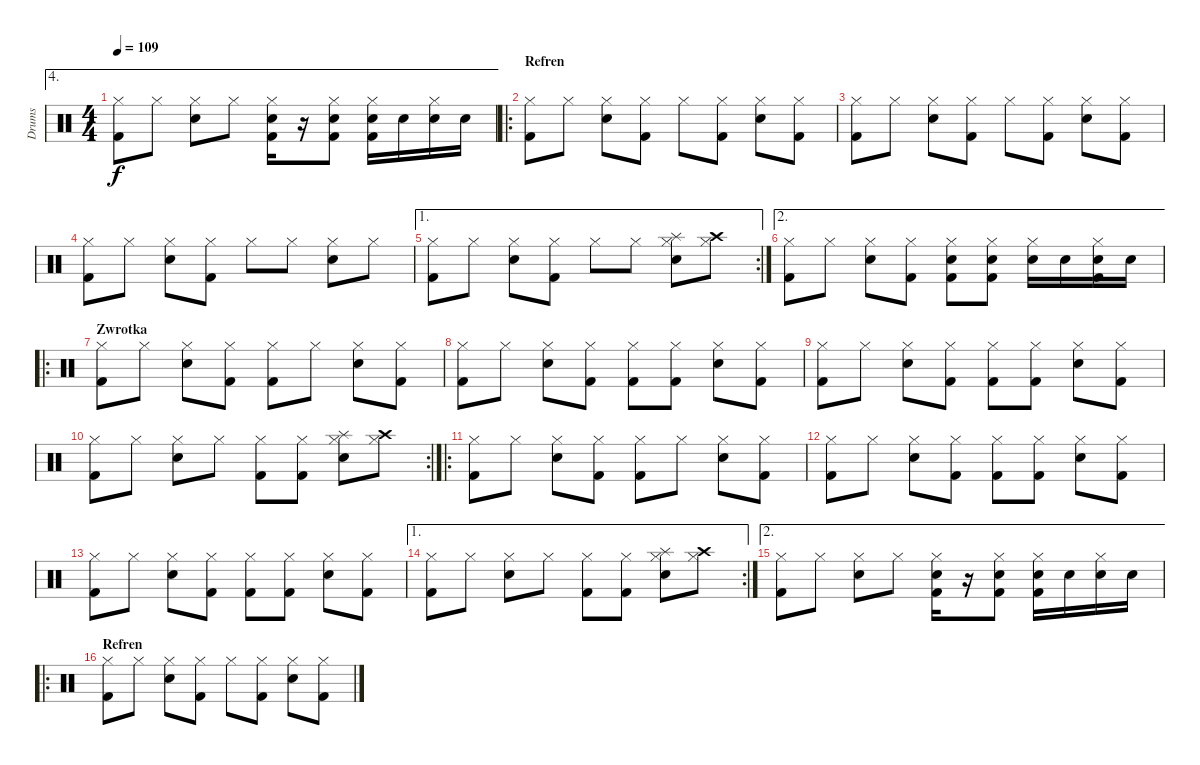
\track ("Drums" "Drums") {instrument percussion}
\staff {score}
\articulation defaults
\ae 4
\ts (4 4)
\tempo 109
\clef neutral
\ks c
("Hi-Hat (closed)" "Kick (hit) 2").8{dy f} "Hi-Hat (closed)".8 ("Hi-Hat (closed)" "Snare (hit) 2").8 "Hi-Hat (closed)".8 ("Hi-Hat (closed)" "Snare (hit) 2" "Kick (hit) 2").16 r.16 ("Hi-Hat (closed)" "Snare (hit) 2" "Kick (hit) 2").8 ("Hi-Hat (closed)" "Snare (hit) 2" "Kick (hit) 2").16 "Snare (hit) 2".16 ("Hi-Hat (closed)" "Snare (hit) 2").16 "Snare (hit) 2".16 |
\ro
\section ("" "Refren")
("Hi-Hat (closed)" "Kick (hit) 2").8 "Hi-Hat (closed)".8 ("Hi-Hat (closed)" "Snare (hit) 2").8 ("Hi-Hat (closed)" "Kick (hit) 2").8 "Hi-Hat (closed)".8 ("Hi-Hat (closed)" "Kick (hit) 2").8 ("Hi-Hat (closed)" "Snare (hit) 2").8 ("Hi-Hat (closed)" "Kick (hit) 2").8 |
("Hi-Hat (closed)" "Kick (hit) 2").8 "Hi-Hat (closed)".8 ("Hi-Hat (closed)" "Snare (hit) 2").8 ("Hi-Hat (closed)" "Kick (hit) 2").8 "Hi-Hat (closed)".8 ("Hi-Hat (closed)" "Kick (hit) 2").8 ("Hi-Hat (closed)" "Snare (hit) 2").8 ("Hi-Hat (closed)" "Kick (hit) 2").8 |
("Hi-Hat (closed)" "Kick (hit) 2").8 "Hi-Hat (closed)".8 ("Hi-Hat (closed)" "Snare (hit) 2").8 ("Hi-Hat (closed)" "Kick (hit) 2").8 "Hi-Hat (closed)".8 "Hi-Hat (closed)".8 ("Hi-Hat (closed)" "Snare (hit) 2").8 "Hi-Hat (closed)".8 |
\ae 1
\rc 2
("Hi-Hat (closed)" "Kick (hit) 2").8 "Hi-Hat (closed)".8 ("Hi-Hat (closed)" "Snare (hit) 2").8 ("Hi-Hat (closed)" "Kick (hit) 2").8 "Hi-Hat (closed)".8 "Hi-Hat (closed)".8 ("Splash (hit)" "Hi-Hat (closed)" "Snare (hit) 2").8 ("Crash high (hit)" "Hi-Hat (closed)").8 |
\ae 2
("Hi-Hat (closed)" "Kick (hit) 2").8 "Hi-Hat (closed)".8 ("Hi-Hat (closed)" "Snare (hit) 2").8 ("Hi-Hat (closed)" "Kick (hit) 2").8 ("Hi-Hat (closed)" "Snare (hit) 2" "Kick (hit) 2").8 ("Hi-Hat (closed)" "Snare (hit) 2" "Kick (hit) 2").8 ("Hi-Hat (closed)" "Snare (hit) 2").16 "Snare (hit) 2".16 ("Hi-Hat (closed)" "Snare (hit) 2" "Kick (hit) 2").16 "Snare (hit) 2".16 |
\ro
\section ("" "Zwrotka")
("Hi-Hat (closed)" "Kick (hit) 2").8 "Hi-Hat (closed)".8 ("Hi-Hat (closed)" "Snare (hit) 2").8 ("Hi-Hat (closed)" "Kick (hit) 2").8 ("Hi-Hat (closed)" "Kick (hit) 2").8 "Hi-Hat (closed)".8 ("Hi-Hat (closed)" "Snare (hit) 2").8 ("Hi-Hat (closed)" "Kick (hit) 2").8 |
("Hi-Hat (closed)" "Kick (hit) 2").8 "Hi-Hat (closed)".8 ("Hi-Hat (closed)" "Snare (hit) 2").8 ("Hi-Hat (closed)" "Kick (hit) 2").8 ("Hi-Hat (closed)" "Kick (hit) 2").8 ("Hi-Hat (closed)" "Kick (hit) 2").8 ("Hi-Hat (closed)" "Snare (hit) 2").8 ("Hi-Hat (closed)" "Kick (hit) 2").8 |
("Hi-Hat (closed)" "Kick (hit) 2").8 "Hi-Hat (closed)".8 ("Hi-Hat (closed)" "Snare (hit) 2").8 ("Hi-Hat (closed)" "Kick (hit) 2").8 ("Hi-Hat (closed)" "Kick (hit) 2").8 ("Hi-Hat (closed)" "Kick (hit) 2").8 ("Hi-Hat (closed)" "Snare (hit) 2").8 ("Hi-Hat (closed)" "Kick (hit) 2").8 |
\rc 2
("Hi-Hat (closed)" "Kick (hit) 2").8 "Hi-Hat (closed)".8 ("Hi-Hat (closed)" "Snare (hit) 2").8 "Hi-Hat (closed)".8 ("Hi-Hat (closed)" "Kick (hit) 2").8 ("Hi-Hat (closed)" "Kick (hit) 2").8 ("Splash (hit)" "Hi-Hat (closed)" "Snare (hit) 2").8 ("Crash high (hit)" "Hi-Hat (closed)").8 |
\ro
("Hi-Hat (closed)" "Kick (hit) 2").8 "Hi-Hat (closed)".8 ("Hi-Hat (closed)" "Snare (hit) 2").8 ("Hi-Hat (closed)" "Kick (hit) 2").8 ("Hi-Hat (closed)" "Kick (hit) 2").8 "Hi-Hat (closed)".8 ("Hi-Hat (closed)" "Snare (hit) 2").8 ("Hi-Hat (closed)" "Kick (hit) 2").8 |
("Hi-Hat (closed)" "Kick (hit) 2").8 "Hi-Hat (closed)".8 ("Hi-Hat (closed)" "Snare (hit) 2").8 ("Hi-Hat (closed)" "Kick (hit) 2").8 ("Hi-Hat (closed)" "Kick (hit) 2").8 ("Hi-Hat (closed)" "Kick (hit) 2").8 ("Hi-Hat (closed)" "Snare (hit) 2").8 ("Hi-Hat (closed)" "Kick (hit) 2").8 |
("Hi-Hat (closed)" "Kick (hit) 2").8 "Hi-Hat (closed)".8 ("Hi-Hat (closed)" "Snare (hit) 2").8 ("Hi-Hat (closed)" "Kick (hit) 2").8 ("Hi-Hat (closed)" "Kick (hit) 2").8 ("Hi-Hat (closed)" "Kick (hit) 2").8 ("Hi-Hat (closed)" "Snare (hit) 2").8 ("Hi-Hat (closed)" "Kick (hit) 2").8 |
\ae 1
\rc 2
("Hi-Hat (closed)" "Kick (hit) 2").8 "Hi-Hat (closed)".8 ("Hi-Hat (closed)" "Snare (hit) 2").8 "Hi-Hat (closed)".8 ("Hi-Hat (closed)" "Kick (hit) 2").8 ("Hi-Hat (closed)" "Kick (hit) 2").8 ("Splash (hit)" "Hi-Hat (closed)" "Snare (hit) 2").8 ("Crash high (hit)" "Hi-Hat (closed)").8 |
\ae 2
("Hi-Hat (closed)" "Kick (hit) 2").8 "Hi-Hat (closed)".8 ("Hi-Hat (closed)" "Snare (hit) 2").8 "Hi-Hat (closed)".8 ("Hi-Hat (closed)" "Snare (hit) 2" "Kick (hit) 2").16 r.16 ("Hi-Hat (closed)" "Snare (hit) 2" "Kick (hit) 2").8 ("Hi-Hat (closed)" "Snare (hit) 2" "Kick (hit) 2").16 "Snare (hit) 2".16 ("Hi-Hat (closed)" "Snare (hit) 2").16 "Snare (hit) 2".16 |
\ro
\section ("" "Refren")
("Hi-Hat (closed)" "Kick (hit) 2").8 "Hi-Hat (closed)".8 ("Hi-Hat (closed)" "Snare (hit) 2").8 ("Hi-Hat (closed)" "Kick (hit) 2").8 "Hi-Hat (closed)".8 ("Hi-Hat (closed)" "Kick (hit) 2").8 ("Hi-Hat (closed)" "Snare (hit) 2").8 ("Hi-Hat (closed)" "Kick (hit) 2").8
